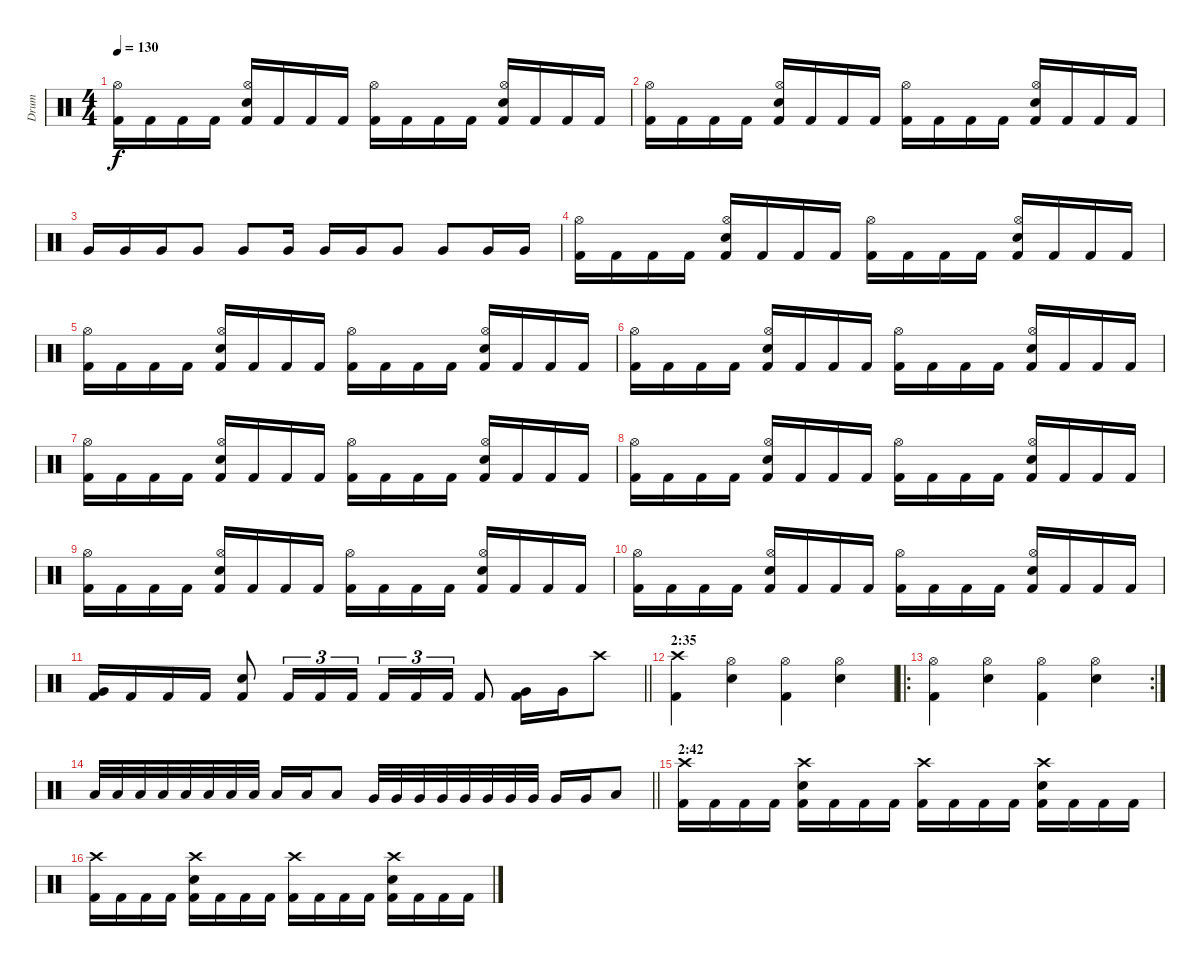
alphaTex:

\track ("Drum" "Drum") {instrument percussion}
\staff {score}
\articulation defaults
\ts (4 4)
\tempo 130
\clef neutral
\ks c
("Kick (hit) 2" "Hi-Hat (open)").16{dy f} "Kick (hit) 2".16 "Kick (hit) 2".16 "Kick (hit) 2".16 ("Kick (hit) 2" "Electric Snare (hit)" "Hi-Hat (open)").16 "Kick (hit) 2".16 "Kick (hit) 2".16 "Kick (hit) 2".16 ("Kick (hit) 2" "Hi-Hat (open)").16 "Kick (hit) 2".16 "Kick (hit) 2".16 "Kick (hit) 2".16 ("Kick (hit) 2" "Electric Snare (hit)" "Hi-Hat (open)").16 "Kick (hit) 2".16 "Kick (hit) 2".16 "Kick (hit) 2".16 |
("Kick (hit) 2" "Hi-Hat (open)").16 "Kick (hit) 2".16 "Kick (hit) 2".16 "Kick (hit) 2".16 ("Kick (hit) 2" "Electric Snare (hit)" "Hi-Hat (open)").16 "Kick (hit) 2".16 "Kick (hit) 2".16 "Kick (hit) 2".16 ("Kick (hit) 2" "Hi-Hat (open)").16 "Kick (hit) 2".16 "Kick (hit) 2".16 "Kick (hit) 2".16 ("Kick (hit) 2" "Electric Snare (hit)" "Hi-Hat (open)").16 "Kick (hit) 2".16 "Kick (hit) 2".16 "Kick (hit) 2".16 |
"Very Low Tom (hit)".16 "Very Low Tom (hit)".16 "Very Low Tom (hit)".16 "Very Low Tom (hit)".8 "Very Low Tom (hit)".8 "Very Low Tom (hit)".16 "Very Low Tom (hit)".16 "Very Low Tom (hit)".16 "Very Low Tom (hit)".8 "Very Low Tom (hit)".8 "Very Low Tom (hit)".16 "Very Low Tom (hit)".16 |
("Kick (hit) 2" "Hi-Hat (open)").16 "Kick (hit) 2".16 "Kick (hit) 2".16 "Kick (hit) 2".16 ("Kick (hit) 2" "Electric Snare (hit)" "Hi-Hat (open)").16 "Kick (hit) 2".16 "Kick (hit) 2".16 "Kick (hit) 2".16 ("Kick (hit) 2" "Hi-Hat (open)").16 "Kick (hit) 2".16 "Kick (hit) 2".16 "Kick (hit) 2".16 ("Kick (hit) 2" "Electric Snare (hit)" "Hi-Hat (open)").16 "Kick (hit) 2".16 "Kick (hit) 2".16 "Kick (hit) 2".16 |
("Kick (hit) 2" "Hi-Hat (open)").16 "Kick (hit) 2".16 "Kick (hit) 2".16 "Kick (hit) 2".16 ("Kick (hit) 2" "Electric Snare (hit)" "Hi-Hat (open)").16 "Kick (hit) 2".16 "Kick (hit) 2".16 "Kick (hit) 2".16 ("Kick (hit) 2" "Hi-Hat (open)").16 "Kick (hit) 2".16 "Kick (hit) 2".16 "Kick (hit) 2".16 ("Kick (hit) 2" "Electric Snare (hit)" "Hi-Hat (open)").16 "Kick (hit) 2".16 "Kick (hit) 2".16 "Kick (hit) 2".16 |
("Kick (hit) 2" "Hi-Hat (open)").16 "Kick (hit) 2".16 "Kick (hit) 2".16 "Kick (hit) 2".16 ("Kick (hit) 2" "Electric Snare (hit)" "Hi-Hat (open)").16 "Kick (hit) 2".16 "Kick (hit) 2".16 "Kick (hit) 2".16 ("Kick (hit) 2" "Hi-Hat (open)").16 "Kick (hit) 2".16 "Kick (hit) 2".16 "Kick (hit) 2".16 ("Kick (hit) 2" "Electric Snare (hit)" "Hi-Hat (open)").16 "Kick (hit) 2".16 "Kick (hit) 2".16 "Kick (hit) 2".16 |
("Kick (hit) 2" "Hi-Hat (open)").16 "Kick (hit) 2".16 "Kick (hit) 2".16 "Kick (hit) 2".16 ("Kick (hit) 2" "Electric Snare (hit)" "Hi-Hat (open)").16 "Kick (hit) 2".16 "Kick (hit) 2".16 "Kick (hit) 2".16 ("Kick (hit) 2" "Hi-Hat (open)").16 "Kick (hit) 2".16 "Kick (hit) 2".16 "Kick (hit) 2".16 ("Kick (hit) 2" "Electric Snare (hit)" "Hi-Hat (open)").16 "Kick (hit) 2".16 "Kick (hit) 2".16 "Kick (hit) 2".16 |
("Kick (hit) 2" "Hi-Hat (open)").16 "Kick (hit) 2".16 "Kick (hit) 2".16 "Kick (hit) 2".16 ("Kick (hit) 2" "Electric Snare (hit)" "Hi-Hat (open)").16 "Kick (hit) 2".16 "Kick (hit) 2".16 "Kick (hit) 2".16 ("Kick (hit) 2" "Hi-Hat (open)").16 "Kick (hit) 2".16 "Kick (hit) 2".16 "Kick (hit) 2".16 ("Kick (hit) 2" "Electric Snare (hit)" "Hi-Hat (open)").16 "Kick (hit) 2".16 "Kick (hit) 2".16 "Kick (hit) 2".16 |
("Kick (hit) 2" "Hi-Hat (open)").16 "Kick (hit) 2".16 "Kick (hit) 2".16 "Kick (hit) 2".16 ("Kick (hit) 2" "Electric Snare (hit)" "Hi-Hat (open)").16 "Kick (hit) 2".16 "Kick (hit) 2".16 "Kick (hit) 2".16 ("Kick (hit) 2" "Hi-Hat (open)").16 "Kick (hit) 2".16 "Kick (hit) 2".16 "Kick (hit) 2".16 ("Kick (hit) 2" "Electric Snare (hit)" "Hi-Hat (open)").16 "Kick (hit) 2".16 "Kick (hit) 2".16 "Kick (hit) 2".16 |
("Kick (hit) 2" "Hi-Hat (open)").16 "Kick (hit) 2".16 "Kick (hit) 2".16 "Kick (hit) 2".16 ("Kick (hit) 2" "Electric Snare (hit)" "Hi-Hat (open)").16 "Kick (hit) 2".16 "Kick (hit) 2".16 "Kick (hit) 2".16 ("Kick (hit) 2" "Hi-Hat (open)").16 "Kick (hit) 2".16 "Kick (hit) 2".16 "Kick (hit) 2".16 ("Kick (hit) 2" "Electric Snare (hit)" "Hi-Hat (open)").16 "Kick (hit) 2".16 "Kick (hit) 2".16 "Kick (hit) 2".16 |
\barLineRight lightlight
("Kick (hit) 2" "Very Low Tom (hit)").16 "Kick (hit) 2".16 "Kick (hit) 2".16 "Kick (hit) 2".16 ("Kick (hit) 2" "Electric Snare (hit)").8 "Kick (hit) 2".16{tu (3 2)} "Kick (hit) 2".16{tu (3 2)} "Kick (hit) 2".16{tu (3 2)} "Kick (hit) 2".16{tu (3 2)} "Kick (hit) 2".16{tu (3 2)} "Kick (hit) 2".16{tu (3 2)} "Kick (hit) 2".8 ("Kick (hit) 2" "Very Low Tom (hit)").16 "Very Low Tom (hit)".16 "Crash high (hit)".8 |
\section ("" "2:35")
("Kick (hit) 2" "Crash high (hit)").4 ("Electric Snare (hit)" "Hi-Hat (open)").4 ("Kick (hit) 2" "Hi-Hat (open)").4 ("Electric Snare (hit)" "Hi-Hat (open)").4 |
\ro
\rc 2
("Kick (hit) 2" "Hi-Hat (open)").4 ("Electric Snare (hit)" "Hi-Hat (open)").4 ("Kick (hit) 2" "Hi-Hat (open)").4 ("Electric Snare (hit)" "Hi-Hat (open)").4 |
\barLineRight lightlight "Low Tom (hit)".32 "Low Tom (hit)".32 "Low Tom (hit)".32 "Low Tom (hit)".32 "Low Tom (hit)".32 "Low Tom (hit)".32 "Low Tom (hit)".32 "Low Tom (hit)".32 "Low Tom (hit)".16 "Low Tom (hit)".16 "Low Tom (hit)".8 "Very Low Tom (hit)".32 "Very Low Tom (hit)".32 "Very Low Tom (hit)".32 "Very Low Tom (hit)".32 "Very Low Tom (hit)".32 "Very Low Tom (hit)".32 "Very Low Tom (hit)".32 "Very Low Tom (hit)".32 "Very Low Tom (hit)".16 "Very Low Tom (hit)".16 "Low Tom (hit)".8
|
\section ("" "2:42")
("Kick (hit) 2" "Crash high (hit)").16 "Kick (hit) 2".16 "Kick (hit) 2".16 "Kick (hit) 2".16 ("Kick (hit) 2" "Electric Snare (hit)" "Crash high (hit)").16 "Kick (hit) 2".16 "Kick (hit) 2".16 "Kick (hit) 2".16 ("Kick (hit) 2" "Crash high (hit)").16 "Kick (hit) 2".16 "Kick (hit) 2".16 "Kick (hit) 2".16 ("Kick (hit) 2" "Electric Snare (hit)" "Crash high (hit)").16 "Kick (hit) 2".16 "Kick (hit) 2".16 "Kick (hit) 2".16 |
("Kick (hit) 2" "Crash high (hit)").16 "Kick (hit) 2".16 "Kick (hit) 2".16 "Kick (hit) 2".16 ("Kick (hit) 2" "Electric Snare (hit)" "Crash high (hit)").16 "Kick (hit) 2".16 "Kick (hit) 2".16 "Kick (hit) 2".16 ("Kick (hit) 2" "Crash high (hit)").16 "Kick (hit) 2".16 "Kick (hit) 2".16 "Kick (hit) 2".16 ("Kick (hit) 2" "Electric Snare (hit)" "Crash high (hit)").16 "Kick (hit) 2".16 "Kick (hit) 2".16 "Kick (hit) 2".16
